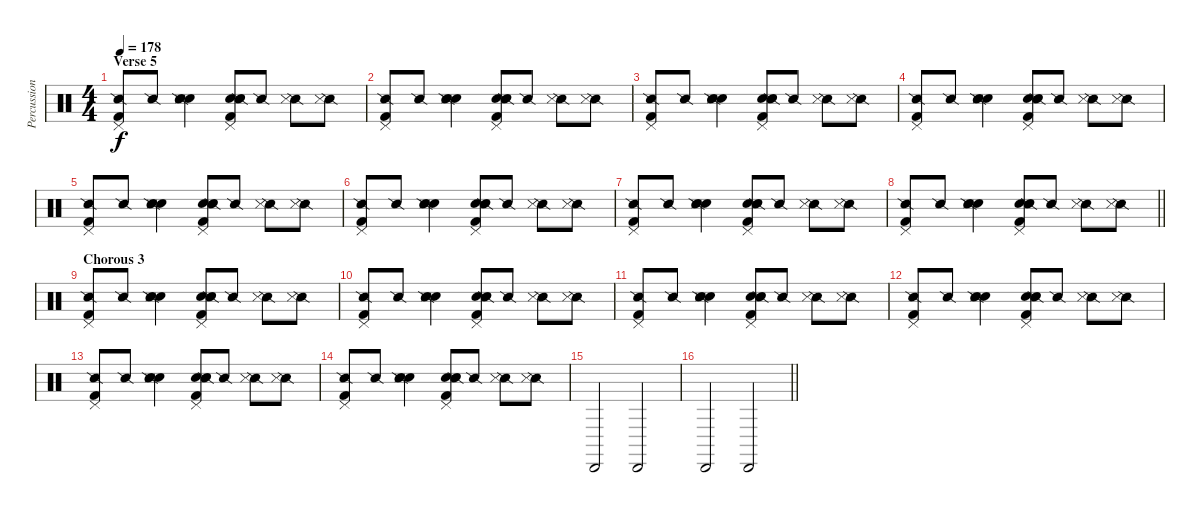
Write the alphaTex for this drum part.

\track ("Percussion" "Percussion") {instrument percussion}
\staff {score}
\articulation defaults
\ts (4 4)
\section ("" "Verse 5")
\tempo 178
\clef neutral
\ks c
("Pedal Hi-Hat (hit)" "Kick (hit) 2" "Snare (side stick) 2").8{dy f} "Snare (side stick) 2".8 ("Hand Clap (hit)" "Hand Clap (hit)" "Snare (side stick) 2" "Metronome (hit)").4 ("Pedal Hi-Hat (hit)" "Hand Clap (hit)" "Hand Clap (hit)" "Kick (hit) 2" "Snare (side stick) 2").8 "Snare (side stick) 2".8 ("Snare (side stick) 2" "Metronome (hit)").8 ("Snare (side stick) 2" "Metronome (hit)").8 |
("Pedal Hi-Hat (hit)" "Kick (hit) 2" "Snare (side stick) 2").8 "Snare (side stick) 2".8 ("Hand Clap (hit)" "Hand Clap (hit)" "Snare (side stick) 2" "Metronome (hit)").4 ("Pedal Hi-Hat (hit)" "Hand Clap (hit)" "Hand Clap (hit)" "Kick (hit) 2" "Snare (side stick) 2").8 "Snare (side stick) 2".8 ("Snare (side stick) 2" "Metronome (hit)").8 ("Snare (side stick) 2" "Metronome (hit)").8 |
("Pedal Hi-Hat (hit)" "Kick (hit) 2" "Snare (side stick) 2").8 "Snare (side stick) 2".8 ("Hand Clap (hit)" "Hand Clap (hit)" "Snare (side stick) 2" "Metronome (hit)").4 ("Pedal Hi-Hat (hit)" "Hand Clap (hit)" "Hand Clap (hit)" "Kick (hit) 2" "Snare (side stick) 2").8 "Snare (side stick) 2".8 ("Snare (side stick) 2" "Metronome (hit)").8 ("Snare (side stick) 2" "Metronome (hit)").8 |
("Pedal Hi-Hat (hit)" "Kick (hit) 2" "Snare (side stick) 2").8 "Snare (side stick) 2".8 ("Hand Clap (hit)" "Hand Clap (hit)" "Snare (side stick) 2" "Metronome (hit)").4 ("Pedal Hi-Hat (hit)" "Hand Clap (hit)" "Hand Clap (hit)" "Kick (hit) 2" "Snare (side stick) 2").8 "Snare (side stick) 2".8 ("Snare (side stick) 2" "Metronome (hit)").8 ("Snare (side stick) 2" "Metronome (hit)").8 |
("Pedal Hi-Hat (hit)" "Kick (hit) 2" "Snare (side stick) 2").8 "Snare (side stick) 2".8 ("Hand Clap (hit)" "Hand Clap (hit)" "Snare (side stick) 2" "Metronome (hit)").4 ("Pedal Hi-Hat (hit)" "Hand Clap (hit)" "Hand Clap (hit)" "Kick (hit) 2" "Snare (side stick) 2").8 "Snare (side stick) 2".8 ("Snare (side stick) 2" "Metronome (hit)").8 ("Snare (side stick) 2" "Metronome (hit)").8 |
("Pedal Hi-Hat (hit)" "Kick (hit) 2" "Snare (side stick) 2").8 "Snare (side stick) 2".8 ("Hand Clap (hit)" "Hand Clap (hit)" "Snare (side stick) 2" "Metronome (hit)").4 ("Pedal Hi-Hat (hit)" "Hand Clap (hit)" "Hand Clap (hit)" "Kick (hit) 2" "Snare (side stick) 2").8 "Snare (side stick) 2".8 ("Snare (side stick) 2" "Metronome (hit)").8 ("Snare (side stick) 2" "Metronome (hit)").8 |
("Pedal Hi-Hat (hit)" "Kick (hit) 2" "Snare (side stick) 2").8 "Snare (side stick) 2".8 ("Hand Clap (hit)" "Hand Clap (hit)" "Snare (side stick) 2" "Metronome (hit)").4 ("Pedal Hi-Hat (hit)" "Hand Clap (hit)" "Hand Clap (hit)" "Kick (hit) 2" "Snare (side stick) 2").8 "Snare (side stick) 2".8 ("Snare (side stick) 2" "Metronome (hit)").8 ("Snare (side stick) 2" "Metronome (hit)").8 |
\barLineRight lightlight
("Pedal Hi-Hat (hit)" "Kick (hit) 2" "Snare (side stick) 2").8 "Snare (side stick) 2".8 ("Hand Clap (hit)" "Hand Clap (hit)" "Snare (side stick) 2" "Metronome (hit)").4 ("Pedal Hi-Hat (hit)" "Hand Clap (hit)" "Hand Clap (hit)" "Kick (hit) 2" "Snare (side stick) 2").8 "Snare (side stick) 2".8 ("Snare (side stick) 2" "Metronome (hit)").8 ("Snare (side stick) 2" "Metronome (hit)").8 |
\section ("" "Chorous 3")
("Pedal Hi-Hat (hit)" "Kick (hit) 2" "Snare (side stick) 2").8 "Snare (side stick) 2".8 ("Hand Clap (hit)" "Hand Clap (hit)" "Snare (side stick) 2" "Metronome (hit)").4 ("Pedal Hi-Hat (hit)" "Hand Clap (hit)" "Hand Clap (hit)" "Kick (hit) 2" "Snare (side stick) 2").8 "Snare (side stick) 2".8 ("Snare (side stick) 2" "Metronome (hit)").8 ("Snare (side stick) 2" "Metronome (hit)").8 |
("Pedal Hi-Hat (hit)" "Kick (hit) 2" "Snare (side stick) 2").8 "Snare (side stick) 2".8 ("Hand Clap (hit)" "Hand Clap (hit)" "Snare (side stick) 2" "Metronome (hit)").4 ("Pedal Hi-Hat (hit)" "Hand Clap (hit)" "Hand Clap (hit)" "Kick (hit) 2" "Snare (side stick) 2").8 "Snare (side stick) 2".8 ("Snare (side stick) 2" "Metronome (hit)").8 ("Snare (side stick) 2" "Metronome (hit)").8 |
("Pedal Hi-Hat (hit)" "Kick (hit) 2" "Snare (side stick) 2").8 "Snare (side stick) 2".8 ("Hand Clap (hit)" "Hand Clap (hit)" "Snare (side stick) 2" "Metronome (hit)").4 ("Pedal Hi-Hat (hit)" "Hand Clap (hit)" "Hand Clap (hit)" "Kick (hit) 2" "Snare (side stick) 2").8 "Snare (side stick) 2".8 ("Snare (side stick) 2" "Metronome (hit)").8 ("Snare (side stick) 2" "Metronome (hit)").8 |
("Pedal Hi-Hat (hit)" "Kick (hit) 2" "Snare (side stick) 2").8 "Snare (side stick) 2".8 ("Hand Clap (hit)" "Hand Clap (hit)" "Snare (side stick) 2" "Metronome (hit)").4 ("Pedal Hi-Hat (hit)" "Hand Clap (hit)" "Hand Clap (hit)" "Kick (hit) 2" "Snare (side stick) 2").8 "Snare (side stick) 2".8 ("Snare (side stick) 2" "Metronome (hit)").8 ("Snare (side stick) 2" "Metronome (hit)").8 |
("Pedal Hi-Hat (hit)" "Kick (hit) 2" "Snare (side stick) 2").8 "Snare (side stick) 2".8 ("Hand Clap (hit)" "Hand Clap (hit)" "Snare (side stick) 2" "Metronome (hit)").4 ("Pedal Hi-Hat (hit)" "Hand Clap (hit)" "Hand Clap (hit)" "Kick (hit) 2" "Snare (side stick) 2").8 "Snare (side stick) 2".8 ("Snare (side stick) 2" "Metronome (hit)").8 ("Snare (side stick) 2" "Metronome (hit)").8 |
("Pedal Hi-Hat (hit)" "Kick (hit) 2" "Snare (side stick) 2").8 "Snare (side stick) 2".8 ("Hand Clap (hit)" "Hand Clap (hit)" "Snare (side stick) 2" "Metronome (hit)").4 ("Pedal Hi-Hat (hit)" "Hand Clap (hit)" "Hand Clap (hit)" "Kick (hit) 2" "Snare (side stick) 2").8 "Snare (side stick) 2".8 ("Snare (side stick) 2" "Metronome (hit)").8 ("Snare (side stick) 2" "Metronome (hit)").8 |
"Cabasa (hit)".2 "Cabasa (hit)".2 |
\barLineRight lightlight "Cabasa (hit)".2 "Cabasa (hit)".2
